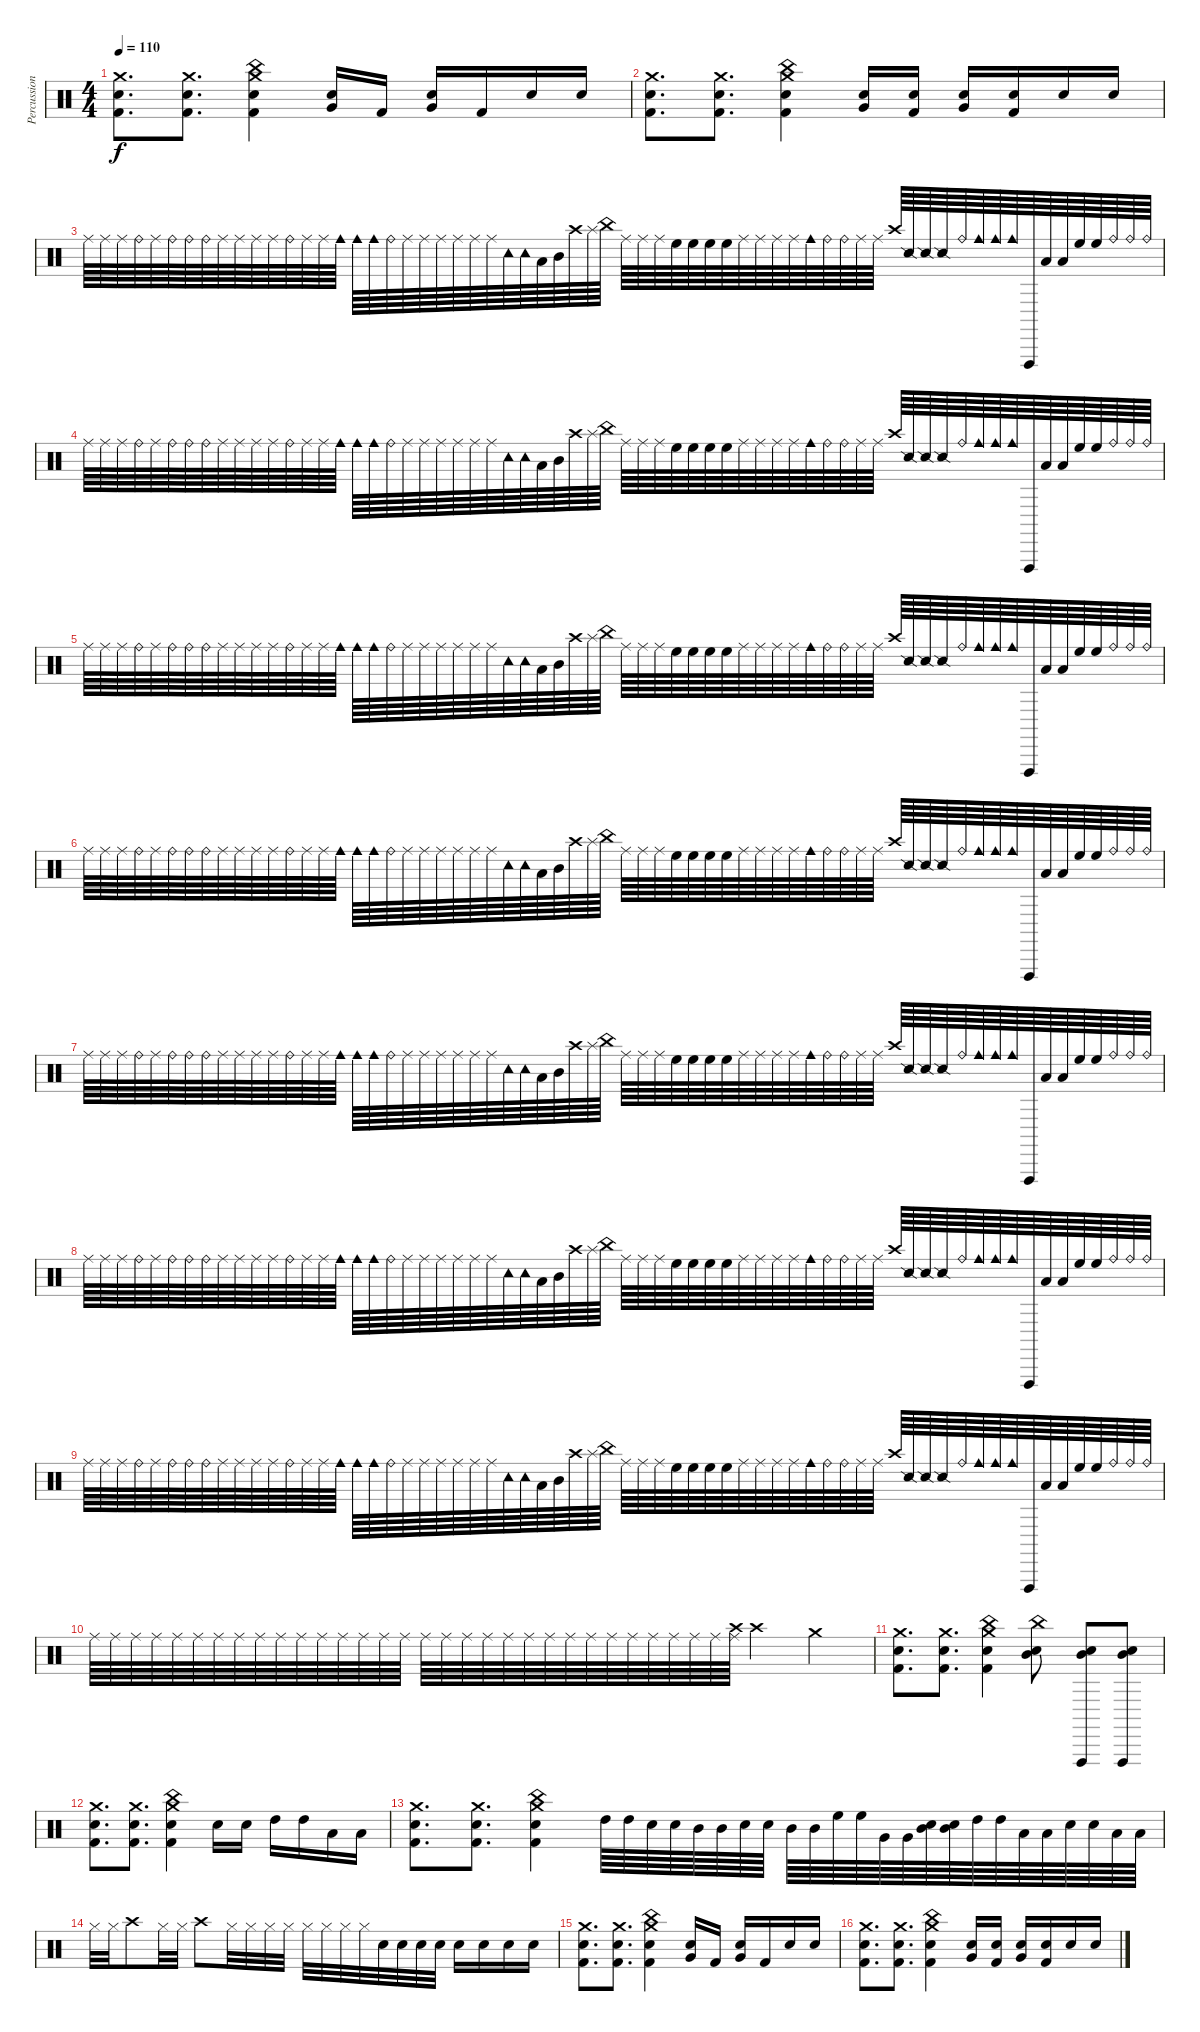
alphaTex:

\track ("Percussion" "Percussion") {instrument percussion}
\staff {score}
\articulation defaults
\ts (4 4)
\tempo 110
\clef neutral
\ks c
("Crash medium (hit)" "Snare (hit) 2" "Kick (hit) 2").8{d dy f} ("Crash medium (hit)" "Snare (hit) 2" "Kick (hit) 2").8{d} ("Crash medium (hit)" "China (hit)" "Snare (hit) 2" "Kick (hit) 2").4 ("Very Low Tom (hit)" "Snare (hit) 2").16 "Kick (hit) 2".16 ("Very Low Tom (hit)" "Snare (hit) 2").16 "Kick (hit) 2".16 "Snare (hit) 2".16 "Snare (hit) 2".16 |
("Crash medium (hit)" "Snare (hit) 2" "Kick (hit) 2").8{d} ("Crash medium (hit)" "Snare (hit) 2" "Kick (hit) 2").8{d} ("Crash medium (hit)" "China (hit)" "Snare (hit) 2" "Kick (hit) 2").4 ("Very Low Tom (hit)" "Snare (hit) 2").16 ("Snare (hit) 2" "Kick (hit) 2").16 ("Very Low Tom (hit)" "Snare (hit) 2").16 ("Snare (hit) 2" "Kick (hit) 2").16 "Snare (hit) 2".16 "Snare (hit) 2".16 |
"Ride (middle)".64 "Ride (middle)".64 "Ride (middle)".64 "Ride (bell)".64 "Ride (middle)".64 "Ride (bell)".64 "Ride (bell)".64 "Ride (bell)".64 "Ride (middle)".64 "Ride (middle)".64 "Ride (middle)".64 "Ride (middle)".64 "Ride (bell)".64 "Ride (middle)".64 "Ride (middle)".64 "Cowbell medium (hit)".64 "Cowbell medium (hit)".64 "Cowbell medium (hit)".64 "Ride (bell)".64 "Ride (middle)".64 "Ride (middle)".64 "Ride (middle)".64 "Ride (middle)".64 "Ride (middle)".64 "Ride (middle)".64 "Tambourine (hit)".64 "Tambourine (hit)".64 "Low Tom (hit)".64 "Mid Tom (hit)".64 "Crash high (hit)".64 "Splash (hit)".64 "China (hit)".64 "Ride (middle)".64 "Ride (middle)".64 "Ride (middle)".64 "High Floor Tom (hit)".64 "High Floor Tom (hit)".64 "High Floor Tom (hit)".64 "High Floor Tom (hit)".64 "Ride (middle)".64 "Ride (middle)".64 "Ride (middle)".64 "Ride (middle)".64 "Cowbell medium (hit)".64 "Ride (bell)".64 "Ride (bell)".64 "Ride (middle)".64 "Ride (middle)".64 "Crash high (hit)".64 "Snare (side stick) 2".64 "Snare (side stick) 2".64 "Snare (side stick) 2".64 "Ride (bell)".64 "Cowbell medium (hit)".64 "Cowbell medium (hit)".64 "Cowbell medium (hit)".64 "Vibraslap (hit)".64 "Low Tom (hit)".64 "Low Tom (hit)".64 "High Floor Tom (hit)".64 "High Floor Tom (hit)".64 "Ride (bell)".64 "Ride (bell)".64 "Ride (bell)".64 |
"Ride (middle)".64 "Ride (middle)".64 "Ride (middle)".64 "Ride (bell)".64 "Ride (middle)".64 "Ride (bell)".64 "Ride (bell)".64 "Ride (bell)".64 "Ride (middle)".64 "Ride (middle)".64 "Ride (middle)".64 "Ride (middle)".64 "Ride (bell)".64 "Ride (middle)".64 "Ride (middle)".64 "Cowbell medium (hit)".64 "Cowbell medium (hit)".64 "Cowbell medium (hit)".64 "Ride (bell)".64 "Ride (middle)".64 "Ride (middle)".64 "Ride (middle)".64 "Ride (middle)".64 "Ride (middle)".64 "Ride (middle)".64 "Tambourine (hit)".64 "Tambourine (hit)".64 "Low Tom (hit)".64 "Mid Tom (hit)".64 "Crash high (hit)".64 "Splash (hit)".64 "China (hit)".64 "Ride (middle)".64 "Ride (middle)".64 "Ride (middle)".64 "High Floor Tom (hit)".64 "High Floor Tom (hit)".64 "High Floor Tom (hit)".64 "High Floor Tom (hit)".64 "Ride (middle)".64 "Ride (middle)".64 "Ride (middle)".64 "Ride (middle)".64 "Cowbell medium (hit)".64 "Ride (bell)".64 "Ride (bell)".64 "Ride (middle)".64 "Ride (middle)".64 "Crash high (hit)".64 "Snare (side stick) 2".64 "Snare (side stick) 2".64 "Snare (side stick) 2".64 "Ride (bell)".64 "Cowbell medium (hit)".64 "Cowbell medium (hit)".64 "Cowbell medium (hit)".64 "Vibraslap (hit)".64 "Low Tom (hit)".64 "Low Tom (hit)".64 "High Floor Tom (hit)".64 "High Floor Tom (hit)".64 "Ride (bell)".64 "Ride (bell)".64 "Ride (bell)".64 |
"Ride (middle)".64 "Ride (middle)".64 "Ride (middle)".64 "Ride (bell)".64 "Ride (middle)".64 "Ride (bell)".64 "Ride (bell)".64 "Ride (bell)".64 "Ride (middle)".64 "Ride (middle)".64 "Ride (middle)".64 "Ride (middle)".64 "Ride (bell)".64 "Ride (middle)".64 "Ride (middle)".64 "Cowbell medium (hit)".64 "Cowbell medium (hit)".64 "Cowbell medium (hit)".64 "Ride (bell)".64 "Ride (middle)".64 "Ride (middle)".64 "Ride (middle)".64 "Ride (middle)".64 "Ride (middle)".64 "Ride (middle)".64 "Tambourine (hit)".64 "Tambourine (hit)".64 "Low Tom (hit)".64 "Mid Tom (hit)".64 "Crash high (hit)".64 "Splash (hit)".64 "China (hit)".64 "Ride (middle)".64 "Ride (middle)".64 "Ride (middle)".64 "High Floor Tom (hit)".64 "High Floor Tom (hit)".64 "High Floor Tom (hit)".64 "High Floor Tom (hit)".64 "Ride (middle)".64 "Ride (middle)".64 "Ride (middle)".64 "Ride (middle)".64 "Cowbell medium (hit)".64 "Ride (bell)".64 "Ride (bell)".64 "Ride (middle)".64 "Ride (middle)".64 "Crash high (hit)".64 "Snare (side stick) 2".64 "Snare (side stick) 2".64 "Snare (side stick) 2".64 "Ride (bell)".64 "Cowbell medium (hit)".64 "Cowbell medium (hit)".64 "Cowbell medium (hit)".64 "Vibraslap (hit)".64 "Low Tom (hit)".64 "Low Tom (hit)".64 "High Floor Tom (hit)".64 "High Floor Tom (hit)".64 "Ride (bell)".64 "Ride (bell)".64 "Ride (bell)".64 |
"Ride (middle)".64 "Ride (middle)".64 "Ride (middle)".64 "Ride (bell)".64 "Ride (middle)".64 "Ride (bell)".64 "Ride (bell)".64 "Ride (bell)".64 "Ride (middle)".64 "Ride (middle)".64 "Ride (middle)".64 "Ride (middle)".64 "Ride (bell)".64 "Ride (middle)".64 "Ride (middle)".64 "Cowbell medium (hit)".64 "Cowbell medium (hit)".64 "Cowbell medium (hit)".64 "Ride (bell)".64 "Ride (middle)".64 "Ride (middle)".64 "Ride (middle)".64 "Ride (middle)".64 "Ride (middle)".64 "Ride (middle)".64 "Tambourine (hit)".64 "Tambourine (hit)".64 "Low Tom (hit)".64 "Mid Tom (hit)".64 "Crash high (hit)".64 "Splash (hit)".64 "China (hit)".64 "Ride (middle)".64 "Ride (middle)".64 "Ride (middle)".64 "High Floor Tom (hit)".64 "High Floor Tom (hit)".64 "High Floor Tom (hit)".64 "High Floor Tom (hit)".64 "Ride (middle)".64 "Ride (middle)".64 "Ride (middle)".64 "Ride (middle)".64 "Cowbell medium (hit)".64 "Ride (bell)".64 "Ride (bell)".64 "Ride (middle)".64 "Ride (middle)".64 "Crash high (hit)".64 "Snare (side stick) 2".64 "Snare (side stick) 2".64 "Snare (side stick) 2".64 "Ride (bell)".64 "Cowbell medium (hit)".64 "Cowbell medium (hit)".64 "Cowbell medium (hit)".64 "Vibraslap (hit)".64 "Low Tom (hit)".64 "Low Tom (hit)".64 "High Floor Tom (hit)".64 "High Floor Tom (hit)".64 "Ride (bell)".64 "Ride (bell)".64 "Ride (bell)".64 |
"Ride (middle)".64 "Ride (middle)".64 "Ride (middle)".64 "Ride (bell)".64 "Ride (middle)".64 "Ride (bell)".64 "Ride (bell)".64 "Ride (bell)".64 "Ride (middle)".64 "Ride (middle)".64 "Ride (middle)".64 "Ride (middle)".64 "Ride (bell)".64 "Ride (middle)".64 "Ride (middle)".64 "Cowbell medium (hit)".64 "Cowbell medium (hit)".64 "Cowbell medium (hit)".64 "Ride (bell)".64 "Ride (middle)".64 "Ride (middle)".64 "Ride (middle)".64 "Ride (middle)".64 "Ride (middle)".64 "Ride (middle)".64 "Tambourine (hit)".64 "Tambourine (hit)".64 "Low Tom (hit)".64 "Mid Tom (hit)".64 "Crash high (hit)".64 "Splash (hit)".64 "China (hit)".64 "Ride (middle)".64 "Ride (middle)".64 "Ride (middle)".64 "High Floor Tom (hit)".64 "High Floor Tom (hit)".64 "High Floor Tom (hit)".64 "High Floor Tom (hit)".64 "Ride (middle)".64 "Ride (middle)".64 "Ride (middle)".64 "Ride (middle)".64 "Cowbell medium (hit)".64 "Ride (bell)".64 "Ride (bell)".64 "Ride (middle)".64 "Ride (middle)".64 "Crash high (hit)".64 "Snare (side stick) 2".64 "Snare (side stick) 2".64 "Snare (side stick) 2".64 "Ride (bell)".64 "Cowbell medium (hit)".64 "Cowbell medium (hit)".64 "Cowbell medium (hit)".64 "Vibraslap (hit)".64 "Low Tom (hit)".64 "Low Tom (hit)".64 "High Floor Tom (hit)".64 "High Floor Tom (hit)".64 "Ride (bell)".64 "Ride (bell)".64 "Ride (bell)".64 |
"Ride (middle)".64 "Ride (middle)".64 "Ride (middle)".64 "Ride (bell)".64 "Ride (middle)".64 "Ride (bell)".64 "Ride (bell)".64 "Ride (bell)".64 "Ride (middle)".64 "Ride (middle)".64 "Ride (middle)".64 "Ride (middle)".64 "Ride (bell)".64 "Ride (middle)".64 "Ride (middle)".64 "Cowbell medium (hit)".64 "Cowbell medium (hit)".64 "Cowbell medium (hit)".64 "Ride (bell)".64 "Ride (middle)".64 "Ride (middle)".64 "Ride (middle)".64 "Ride (middle)".64 "Ride (middle)".64 "Ride (middle)".64 "Tambourine (hit)".64 "Tambourine (hit)".64 "Low Tom (hit)".64 "Mid Tom (hit)".64 "Crash high (hit)".64 "Splash (hit)".64 "China (hit)".64 "Ride (middle)".64 "Ride (middle)".64 "Ride (middle)".64 "High Floor Tom (hit)".64 "High Floor Tom (hit)".64 "High Floor Tom (hit)".64 "High Floor Tom (hit)".64 "Ride (middle)".64 "Ride (middle)".64 "Ride (middle)".64 "Ride (middle)".64 "Cowbell medium (hit)".64 "Ride (bell)".64 "Ride (bell)".64 "Ride (middle)".64 "Ride (middle)".64 "Crash high (hit)".64 "Snare (side stick) 2".64 "Snare (side stick) 2".64 "Snare (side stick) 2".64 "Ride (bell)".64 "Cowbell medium (hit)".64 "Cowbell medium (hit)".64 "Cowbell medium (hit)".64 "Vibraslap (hit)".64 "Low Tom (hit)".64 "Low Tom (hit)".64 "High Floor Tom (hit)".64 "High Floor Tom (hit)".64 "Ride (bell)".64 "Ride (bell)".64 "Ride (bell)".64 |
"Ride (middle)".64 "Ride (middle)".64 "Ride (middle)".64 "Ride (bell)".64 "Ride (middle)".64 "Ride (bell)".64 "Ride (bell)".64 "Ride (bell)".64 "Ride (middle)".64 "Ride (middle)".64 "Ride (middle)".64 "Ride (middle)".64 "Ride (bell)".64 "Ride (middle)".64 "Ride (middle)".64 "Cowbell medium (hit)".64 "Cowbell medium (hit)".64 "Cowbell medium (hit)".64 "Ride (bell)".64 "Ride (middle)".64 "Ride (middle)".64 "Ride (middle)".64 "Ride (middle)".64 "Ride (middle)".64 "Ride (middle)".64 "Tambourine (hit)".64 "Tambourine (hit)".64 "Low Tom (hit)".64 "Mid Tom (hit)".64 "Crash high (hit)".64 "Splash (hit)".64 "China (hit)".64 "Ride (middle)".64 "Ride (middle)".64 "Ride (middle)".64 "High Floor Tom (hit)".64 "High Floor Tom (hit)".64 "High Floor Tom (hit)".64 "High Floor Tom (hit)".64 "Ride (middle)".64 "Ride (middle)".64 "Ride (middle)".64 "Ride (middle)".64 "Cowbell medium (hit)".64 "Ride (bell)".64 "Ride (bell)".64 "Ride (middle)".64 "Ride (middle)".64 "Crash high (hit)".64 "Snare (side stick) 2".64 "Snare (side stick) 2".64 "Snare (side stick) 2".64 "Ride (bell)".64 "Cowbell medium (hit)".64 "Cowbell medium (hit)".64 "Cowbell medium (hit)".64 "Vibraslap (hit)".64 "Low Tom (hit)".64 "Low Tom (hit)".64 "High Floor Tom (hit)".64 "High Floor Tom (hit)".64 "Ride (bell)".64 "Ride (bell)".64 "Ride (bell)".64 |
"Ride (middle)".64 "Ride (middle)".64 "Ride (middle)".64 "Ride (middle)".64 "Ride (middle)".64 "Ride (middle)".64 "Ride (middle)".64 "Ride (middle)".64 "Ride (middle)".64 "Ride (middle)".64 "Ride (middle)".64 "Ride (middle)".64 "Ride (middle)".64 "Ride (middle)".64 "Ride (middle)".64 "Ride (middle)".64 "Ride (middle)".64 "Ride (middle)".64 "Ride (middle)".64 "Ride (middle)".64 "Ride (middle)".64 "Ride (middle)".64 "Ride (middle)".64 "Ride (middle)".64 "Ride (middle)".64 "Ride (middle)".64 "Ride (middle)".64 "Ride (middle)".64 "Ride (middle)".64 "Ride (middle)".64 "Ride (middle)".64 ("Ride (middle)" "Crash high (hit)").64 "Crash high (hit)".4 "Crash medium (hit)".4 |
("Crash medium (hit)" "Snare (hit) 2" "Kick (hit) 2").8{d} ("Crash medium (hit)" "Snare (hit) 2" "Kick (hit) 2").8{d} ("Crash medium (hit)" "China (hit)" "Snare (hit) 2" "Kick (hit) 2").4 ("China (hit)" "Snare (hit) 2" "Mid Tom (hit)").8 ("Vibraslap (hit)" "Snare (hit) 2" "Mid Tom (hit)").8 ("Vibraslap (hit)" "Snare (hit) 2" "Mid Tom (hit)").8 |
("Crash medium (hit)" "Snare (hit) 2" "Kick (hit) 2").8{d} ("Crash medium (hit)" "Snare (hit) 2" "Kick (hit) 2").8{d} ("Crash medium (hit)" "China (hit)" "Snare (hit) 2" "Kick (hit) 2").4 "Snare (hit) 2".16 "Snare (hit) 2".16 "High Tom (hit)".16 "High Tom (hit)".16 "Low Floor Tom (hit)".16 "Low Floor Tom (hit)".16 |
("Crash medium (hit)" "Snare (hit) 2" "Kick (hit) 2").8{d} ("Crash medium (hit)" "Snare (hit) 2" "Kick (hit) 2").8{d} ("Crash medium (hit)" "China (hit)" "Snare (hit) 2" "Kick (hit) 2").4 "High Tom (hit)".64 "High Tom (hit)".64 "Snare (hit) 2".64 "Snare (hit) 2".64 "Mid Tom (hit)".64 "Mid Tom (hit)".64 "Snare (hit) 2".64 "Snare (hit) 2".64 "Mid Tom (hit)".64 "Mid Tom (hit)".64 "High Floor Tom (hit)".64 "High Floor Tom (hit)".64 "Very Low Tom (hit)".64 "Very Low Tom (hit)".64 ("Snare (hit) 2" "Mid Tom (hit)").64 ("Snare (hit) 2" "Mid Tom (hit)").64 "High Tom (hit)".64 "High Tom (hit)".64 "Low Tom (hit)".64 "Low Tom (hit)".64 "Snare (hit) 2".64 "Snare (hit) 2".64 "Low Floor Tom (hit)".64 "Low Floor Tom (hit)".64 |
"Hi-Hat (closed)".32 "Hi-Hat (closed)".32 "Crash high (hit)".8 "Hi-Hat (closed)".32 "Hi-Hat (closed)".32 "Crash high (hit)".8 "Hi-Hat (closed)".32 "Hi-Hat (closed)".32 "Hi-Hat (closed)".32 "Hi-Hat (closed)".32 "Hi-Hat (closed)".32 "Hi-Hat (closed)".32 "Hi-Hat (closed)".32 "Hi-Hat (closed)".32 "Snare (hit) 2".32 "Snare (hit) 2".32 "Snare (hit) 2".32 "Snare (hit) 2".32 "Snare (hit) 2".16 "Snare (hit) 2".16 "Snare (hit) 2".16 "Snare (hit) 2".16 |
("Crash medium (hit)" "Snare (hit) 2" "Kick (hit) 2").8{d} ("Crash medium (hit)" "Snare (hit) 2" "Kick (hit) 2").8{d} ("Crash medium (hit)" "China (hit)" "Snare (hit) 2" "Kick (hit) 2").4 ("Very Low Tom (hit)" "Snare (hit) 2").16 "Kick (hit) 2".16 ("Very Low Tom (hit)" "Snare (hit) 2").16 "Kick (hit) 2".16 "Snare (hit) 2".16 "Snare (hit) 2".16 |
("Crash medium (hit)" "Snare (hit) 2" "Kick (hit) 2").8{d} ("Crash medium (hit)" "Snare (hit) 2" "Kick (hit) 2").8{d} ("Crash medium (hit)" "China (hit)" "Snare (hit) 2" "Kick (hit) 2").4 ("Very Low Tom (hit)" "Snare (hit) 2").16 ("Snare (hit) 2" "Kick (hit) 2").16 ("Very Low Tom (hit)" "Snare (hit) 2").16 ("Snare (hit) 2" "Kick (hit) 2").16 "Snare (hit) 2".16 "Snare (hit) 2".16
